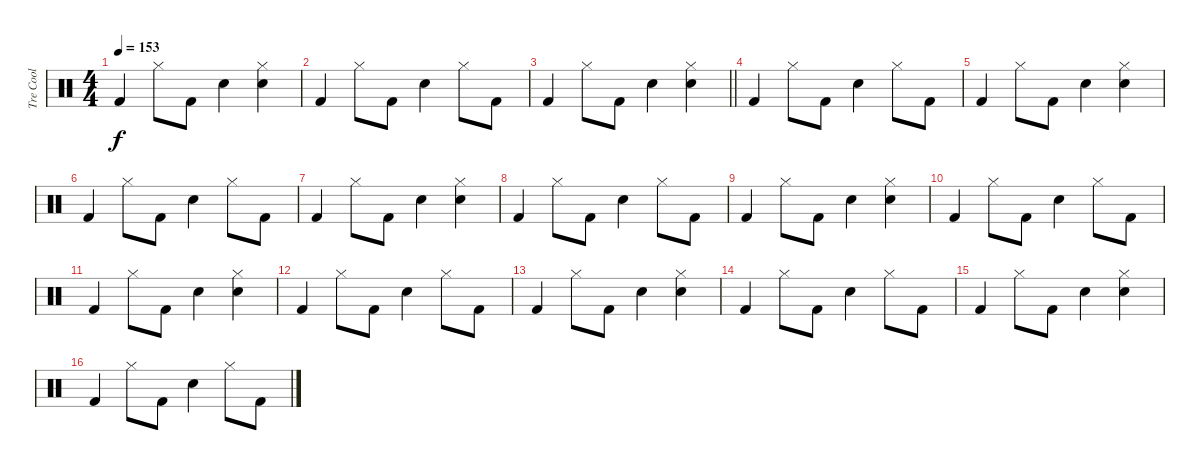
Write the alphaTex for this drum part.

\track ("Tre Cool" "Tre Cool") {instrument percussion}
\staff {score}
\articulation defaults
\ts (4 4)
\tempo 153
\clef neutral
\ks c "Kick (hit) 2".4{dy f} "Hi-Hat (closed)".8 "Kick (hit) 2".8 "Snare (hit) 2".4
("Snare (hit) 2" "Hi-Hat (closed)").4 |
"Kick (hit) 2".4 "Hi-Hat (closed)".8 "Kick (hit) 2".8 "Snare (hit) 2".4 "Hi-Hat (closed)".8 "Kick (hit) 2".8 |
\barLineRight lightlight "Kick (hit) 2".4 "Hi-Hat (closed)".8 "Kick (hit) 2".8 "Snare (hit) 2".4
("Snare (hit) 2" "Hi-Hat (closed)").4 |
"Kick (hit) 2".4 "Hi-Hat (closed)".8 "Kick (hit) 2".8 "Snare (hit) 2".4 "Hi-Hat (closed)".8 "Kick (hit) 2".8 |
"Kick (hit) 2".4 "Hi-Hat (closed)".8 "Kick (hit) 2".8 "Snare (hit) 2".4 ("Snare (hit) 2" "Hi-Hat (closed)").4 |
"Kick (hit) 2".4 "Hi-Hat (closed)".8 "Kick (hit) 2".8 "Snare (hit) 2".4 "Hi-Hat (closed)".8 "Kick (hit) 2".8 |
"Kick (hit) 2".4 "Hi-Hat (closed)".8 "Kick (hit) 2".8 "Snare (hit) 2".4 ("Snare (hit) 2" "Hi-Hat (closed)").4 |
"Kick (hit) 2".4 "Hi-Hat (closed)".8 "Kick (hit) 2".8 "Snare (hit) 2".4 "Hi-Hat (closed)".8 "Kick (hit) 2".8 |
"Kick (hit) 2".4 "Hi-Hat (closed)".8 "Kick (hit) 2".8 "Snare (hit) 2".4 ("Snare (hit) 2" "Hi-Hat (closed)").4 |
"Kick (hit) 2".4 "Hi-Hat (closed)".8 "Kick (hit) 2".8 "Snare (hit) 2".4 "Hi-Hat (closed)".8 "Kick (hit) 2".8 |
"Kick (hit) 2".4 "Hi-Hat (closed)".8 "Kick (hit) 2".8 "Snare (hit) 2".4 ("Snare (hit) 2" "Hi-Hat (closed)").4 |
"Kick (hit) 2".4 "Hi-Hat (closed)".8 "Kick (hit) 2".8 "Snare (hit) 2".4 "Hi-Hat (closed)".8 "Kick (hit) 2".8 |
"Kick (hit) 2".4 "Hi-Hat (closed)".8 "Kick (hit) 2".8 "Snare (hit) 2".4 ("Snare (hit) 2" "Hi-Hat (closed)").4 |
"Kick (hit) 2".4 "Hi-Hat (closed)".8 "Kick (hit) 2".8 "Snare (hit) 2".4 "Hi-Hat (closed)".8 "Kick (hit) 2".8 |
"Kick (hit) 2".4 "Hi-Hat (closed)".8 "Kick (hit) 2".8 "Snare (hit) 2".4 ("Snare (hit) 2" "Hi-Hat (closed)").4 |
"Kick (hit) 2".4 "Hi-Hat (closed)".8 "Kick (hit) 2".8 "Snare (hit) 2".4 "Hi-Hat (closed)".8 "Kick (hit) 2".8
